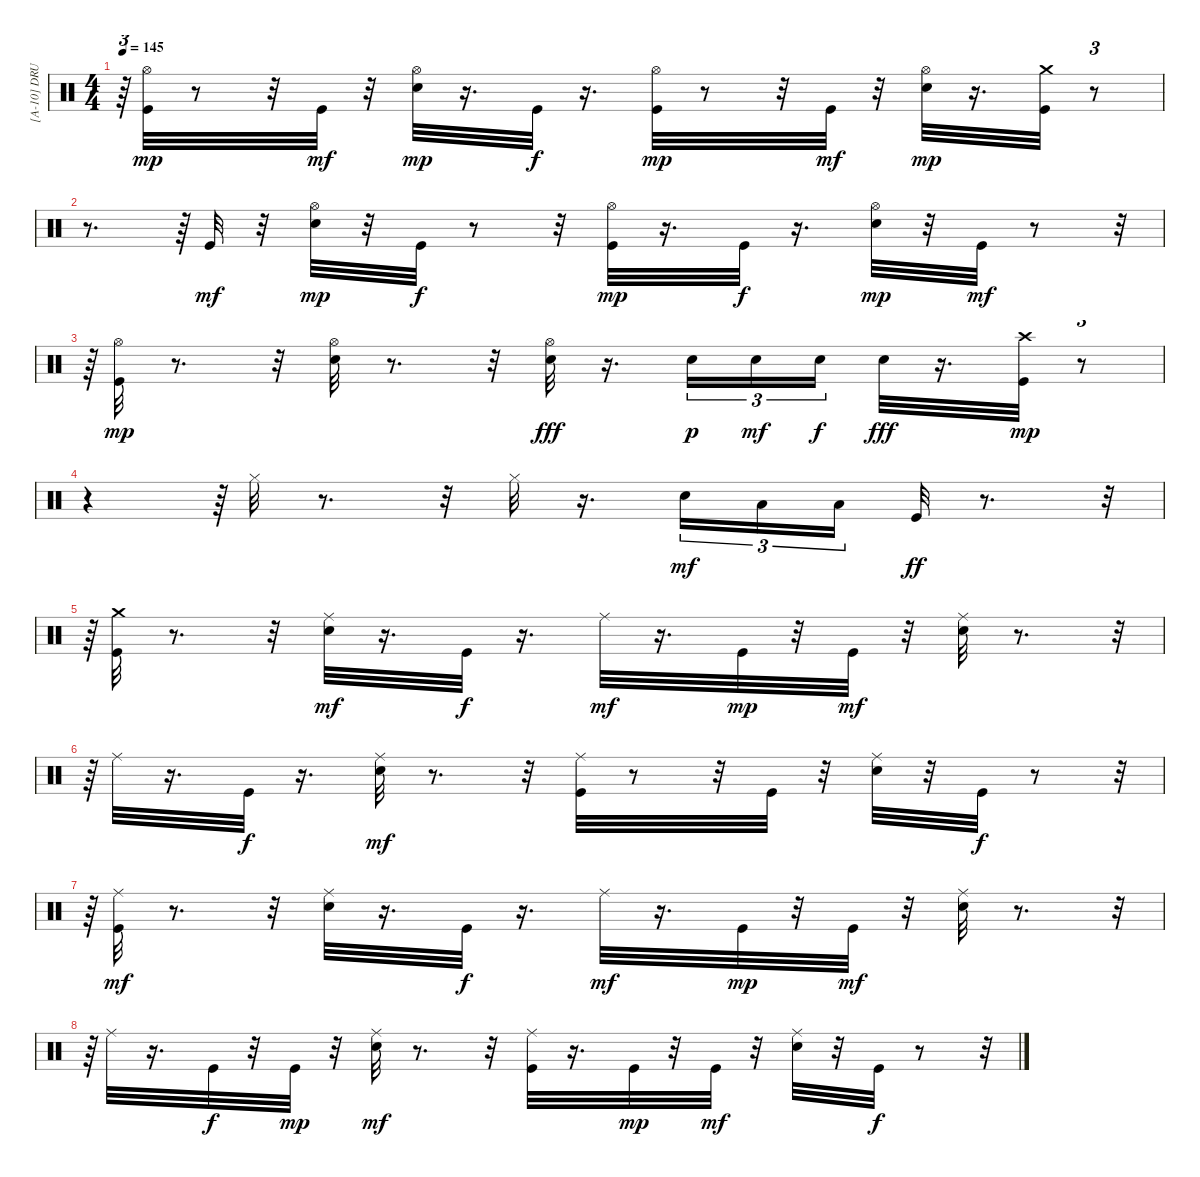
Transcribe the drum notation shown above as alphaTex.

\track ("[A-10] DRUMS" "[A-10] DRU") {instrument percussion}
\staff {score}
\articulation defaults
\ts (4 4)
\tempo 145
\clef neutral
\ks c
r.64{tu (3 2) dy mf} ("Kick (hit)" "Hi-Hat (open)").32{dy mp} r.8 r.32 "Kick (hit)".32{dy mf} r.32 ("Snare (hit) 2" "Hi-Hat (open)").32{dy mp} r.16{d} "Kick (hit)".32{dy f} r.16{d} ("Kick (hit)" "Hi-Hat (open)").32{dy mp} r.8 r.32 "Kick (hit)".32{dy mf} r.32 ("Snare (hit) 2" "Hi-Hat (open)").32{dy mp} r.16{d} ("Kick (hit)" "Crash medium (hit)").32 r.8{tu (3 2)} |
r.8{d} r.64{tu (3 2)} "Kick (hit)".32{dy mf} r.32 ("Snare (hit) 2" "Hi-Hat (open)").32{dy mp} r.32 "Kick (hit)".32{dy f} r.8 r.32 ("Kick (hit)" "Hi-Hat (open)").32{dy mp} r.16{d} "Kick (hit)".32{dy f} r.16{d} ("Snare (hit) 2" "Hi-Hat (open)").32{dy mp} r.32 "Kick (hit)".32{dy mf} r.8 r.32{tu (3 2)} |
r.64{tu (3 2)} ("Kick (hit)" "Hi-Hat (open)").32{dy mp} r.8{d} r.32 ("Snare (hit) 2" "Hi-Hat (open)").32 r.8{d} r.32 ("Hi-Hat (open)" "Snare (hit) 2").32{dy fff} r.16{d} "Snare (hit) 2".16{tu (3 2) dy p} "Snare (hit) 2".16{tu (3 2) dy mf} "Snare (hit) 2".16{tu (3 2) dy f} "Snare (hit) 2".32{dy fff} r.16{d} ("Kick (hit)" "Crash high (hit)").32{dy mp} r.8{tu (3 2)} |
r.4 r.64{tu (3 2)} "Hi-Hat (closed)".32 r.8{d} r.32 "Hi-Hat (closed)".32 r.16{d} "Snare (hit) 2".16{tu (3 2) dy mf} "Low Tom (hit)".16{tu (3 2)} "Low Floor Tom (hit)".16{tu (3 2)} "Kick (hit)".32{dy ff} r.8{d} r.32{tu (3 2)} |
r.64{tu (3 2)} ("Crash medium (hit)" "Kick (hit)").32 r.8{d} r.32 ("Snare (hit) 2" "Ride (middle)").32{dy mf} r.16{d} "Kick (hit)".32{dy f} r.16{d} "Ride (middle)".32{dy mf} r.16{d} "Kick (hit)".32{dy mp} r.32 "Kick (hit)".32{dy mf} r.32 ("Snare (hit) 2" "Ride (middle)").32 r.8{d} r.32{tu (3 2)} |
r.64{tu (3 2)} "Ride (middle)".32 r.16{d} "Kick (hit)".32{dy f} r.16{d} ("Snare (hit) 2" "Ride (middle)").32{dy mf} r.8{d} r.32 ("Kick (hit)" "Ride (middle)").32 r.8 r.32 "Kick (hit)".32 r.32 ("Snare (hit) 2" "Ride (middle)").32 r.32 "Kick (hit)".32{dy f} r.8 r.32{tu (3 2)} |
r.64{tu (3 2)} ("Kick (hit)" "Ride (middle)").32{dy mf} r.8{d} r.32 ("Snare (hit) 2" "Ride (middle)").32 r.16{d} "Kick (hit)".32{dy f} r.16{d} "Ride (middle)".32{dy mf} r.16{d} "Kick (hit)".32{dy mp} r.32 "Kick (hit)".32{dy mf} r.32 ("Snare (hit) 2" "Ride (middle)").32 r.8{d} r.32{tu (3 2)} |
r.64{tu (3 2)} "Ride (middle)".32 r.16{d} "Kick (hit)".32{dy f} r.32 "Kick (hit)".32{dy mp} r.32 ("Snare (hit) 2" "Ride (middle)").32{dy mf} r.8{d} r.32 ("Kick (hit)" "Ride (middle)").32 r.16{d} "Kick (hit)".32{dy mp} r.32 "Kick (hit)".32{dy mf} r.32 ("Snare (hit) 2" "Ride (middle)").32 r.32 "Kick (hit)".32{dy f} r.8 r.32{tu (3 2)}
